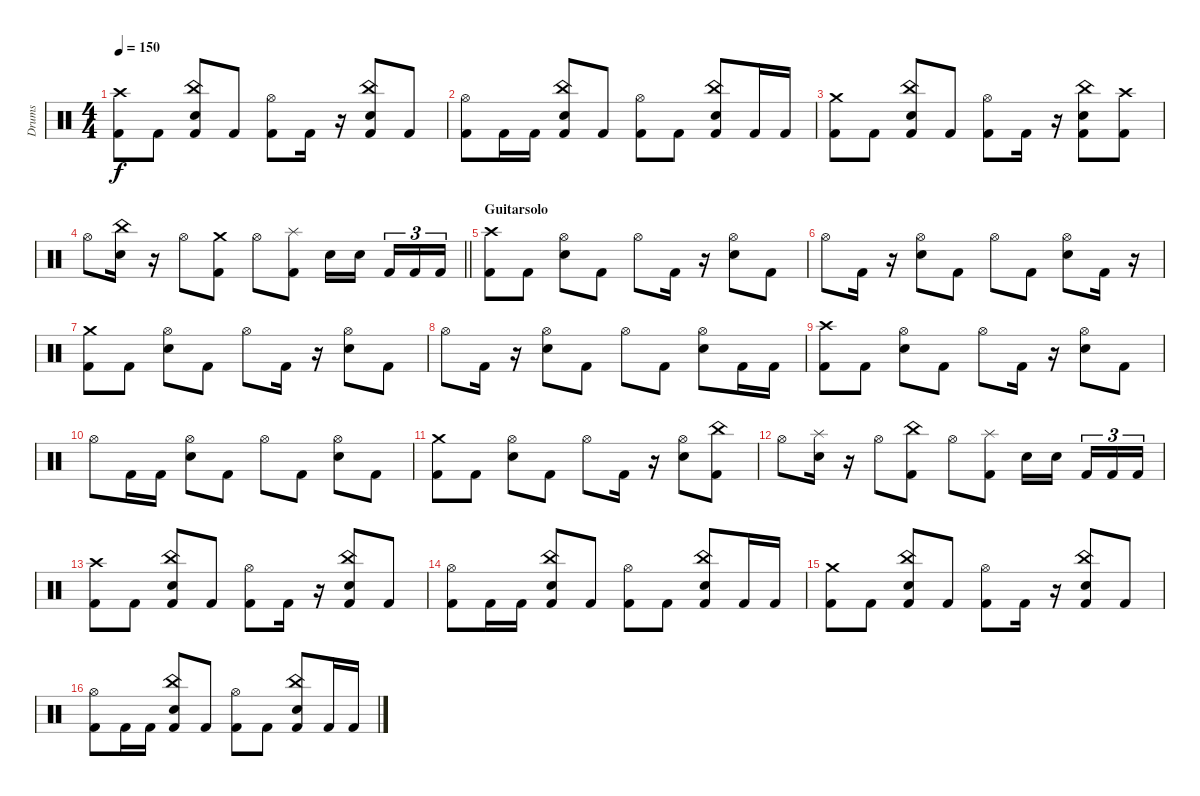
\track ("Drums" "Drums") {instrument percussion}
\staff {score}
\articulation defaults
\ts (4 4)
\tempo 150
\clef neutral
\ks c
("Crash high (hit)" "Kick (hit) 2").8{dy f} "Kick (hit) 2".8 ("China (hit)" "Snare (hit) 2" "Kick (hit) 2").8 "Kick (hit) 2".8 ("Hi-Hat (open)" "Kick (hit) 2").8 "Kick (hit) 2".16 r.16 ("China (hit)" "Snare (hit) 2" "Kick (hit) 2").8 "Kick (hit) 2".8 |
("Hi-Hat (open)" "Kick (hit) 2").8 "Kick (hit) 2".16 "Kick (hit) 2".16 ("China (hit)" "Snare (hit) 2" "Kick (hit) 2").8 "Kick (hit) 2".8 ("Hi-Hat (open)" "Kick (hit) 2").8 "Kick (hit) 2".8 ("China (hit)" "Snare (hit) 2" "Kick (hit) 2").8 "Kick (hit) 2".16 "Kick (hit) 2".16 |
("Crash medium (hit)" "Kick (hit) 2").8 "Kick (hit) 2".8 ("China (hit)" "Snare (hit) 2" "Kick (hit) 2").8 "Kick (hit) 2".8 ("Hi-Hat (open)" "Kick (hit) 2").8 "Kick (hit) 2".16 r.16 ("China (hit)" "Snare (hit) 2" "Kick (hit) 2").8 ("Crash high (hit)" "Kick (hit) 2").8 |
\barLineRight lightlight "Hi-Hat (open)".8
("China (hit)" "Snare (hit) 2").16 r.16 "Hi-Hat (open)".8 ("Crash medium (hit)" "Kick (hit) 2").8 "Hi-Hat (open)".8 ("Splash (hit)" "Kick (hit) 2").8 "Snare (hit) 2".16 "Snare (hit) 2".16{beam splitsecondary} "Kick (hit) 2".16{tu (3 2)} "Kick (hit) 2".16{tu (3 2)} "Kick (hit) 2".16{tu (3 2)} |
\section ("" "Guitarsolo")
("Crash high (hit)" "Kick (hit) 2").8 "Kick (hit) 2".8 ("Hi-Hat (open)" "Snare (hit) 2").8 "Kick (hit) 2".8 "Hi-Hat (open)".8 "Kick (hit) 2".16 r.16 ("Hi-Hat (open)" "Snare (hit) 2").8 "Kick (hit) 2".8 |
"Hi-Hat (open)".8 "Kick (hit) 2".16 r.16 ("Hi-Hat (open)" "Snare (hit) 2").8 "Kick (hit) 2".8 "Hi-Hat (open)".8 "Kick (hit) 2".8 ("Hi-Hat (open)" "Snare (hit) 2").8 "Kick (hit) 2".16 r.16 |
("Crash medium (hit)" "Kick (hit) 2").8 "Kick (hit) 2".8 ("Hi-Hat (open)" "Snare (hit) 2").8 "Kick (hit) 2".8 "Hi-Hat (open)".8 "Kick (hit) 2".16 r.16 ("Hi-Hat (open)" "Snare (hit) 2").8 "Kick (hit) 2".8 |
"Hi-Hat (open)".8 "Kick (hit) 2".16 r.16 ("Hi-Hat (open)" "Snare (hit) 2").8 "Kick (hit) 2".8 "Hi-Hat (open)".8 "Kick (hit) 2".8 ("Hi-Hat (open)" "Snare (hit) 2").8 "Kick (hit) 2".16 "Kick (hit) 2".16 |
("Crash high (hit)" "Kick (hit) 2").8 "Kick (hit) 2".8 ("Hi-Hat (open)" "Snare (hit) 2").8 "Kick (hit) 2".8 "Hi-Hat (open)".8 "Kick (hit) 2".16 r.16 ("Hi-Hat (open)" "Snare (hit) 2").8 "Kick (hit) 2".8 |
"Hi-Hat (open)".8 "Kick (hit) 2".16 "Kick (hit) 2".16 ("Hi-Hat (open)" "Snare (hit) 2").8 "Kick (hit) 2".8 "Hi-Hat (open)".8 "Kick (hit) 2".8 ("Hi-Hat (open)" "Snare (hit) 2").8 "Kick (hit) 2".8 |
("Crash medium (hit)" "Kick (hit) 2").8 "Kick (hit) 2".8 ("Hi-Hat (open)" "Snare (hit) 2").8 "Kick (hit) 2".8 "Hi-Hat (open)".8 "Kick (hit) 2".16 r.16 ("Hi-Hat (open)" "Snare (hit) 2").8 ("China (hit)" "Kick (hit) 2").8 |
"Hi-Hat (open)".8 ("Splash (hit)" "Snare (hit) 2").16 r.16 "Hi-Hat (open)".8 ("China (hit)" "Kick (hit) 2").8 "Hi-Hat (open)".8 ("Splash (hit)" "Kick (hit) 2").8 "Snare (hit) 2".16 "Snare (hit) 2".16{beam splitsecondary} "Kick (hit) 2".16{tu (3 2)} "Kick (hit) 2".16{tu (3 2)} "Kick (hit) 2".16{tu (3 2)} |
("Crash high (hit)" "Kick (hit) 2").8 "Kick (hit) 2".8 ("China (hit)" "Snare (hit) 2" "Kick (hit) 2").8 "Kick (hit) 2".8 ("Hi-Hat (open)" "Kick (hit) 2").8 "Kick (hit) 2".16 r.16 ("China (hit)" "Snare (hit) 2" "Kick (hit) 2").8 "Kick (hit) 2".8 |
("Hi-Hat (open)" "Kick (hit) 2").8 "Kick (hit) 2".16 "Kick (hit) 2".16 ("China (hit)" "Snare (hit) 2" "Kick (hit) 2").8 "Kick (hit) 2".8 ("Hi-Hat (open)" "Kick (hit) 2").8 "Kick (hit) 2".8 ("China (hit)" "Snare (hit) 2" "Kick (hit) 2").8 "Kick (hit) 2".16 "Kick (hit) 2".16 |
("Crash medium (hit)" "Kick (hit) 2").8 "Kick (hit) 2".8 ("China (hit)" "Snare (hit) 2" "Kick (hit) 2").8 "Kick (hit) 2".8 ("Hi-Hat (open)" "Kick (hit) 2").8 "Kick (hit) 2".16 r.16 ("China (hit)" "Snare (hit) 2" "Kick (hit) 2").8 "Kick (hit) 2".8 |
("Hi-Hat (open)" "Kick (hit) 2").8 "Kick (hit) 2".16 "Kick (hit) 2".16 ("China (hit)" "Snare (hit) 2" "Kick (hit) 2").8 "Kick (hit) 2".8 ("Hi-Hat (open)" "Kick (hit) 2").8 "Kick (hit) 2".8 ("China (hit)" "Snare (hit) 2" "Kick (hit) 2").8 "Kick (hit) 2".16 "Kick (hit) 2".16
